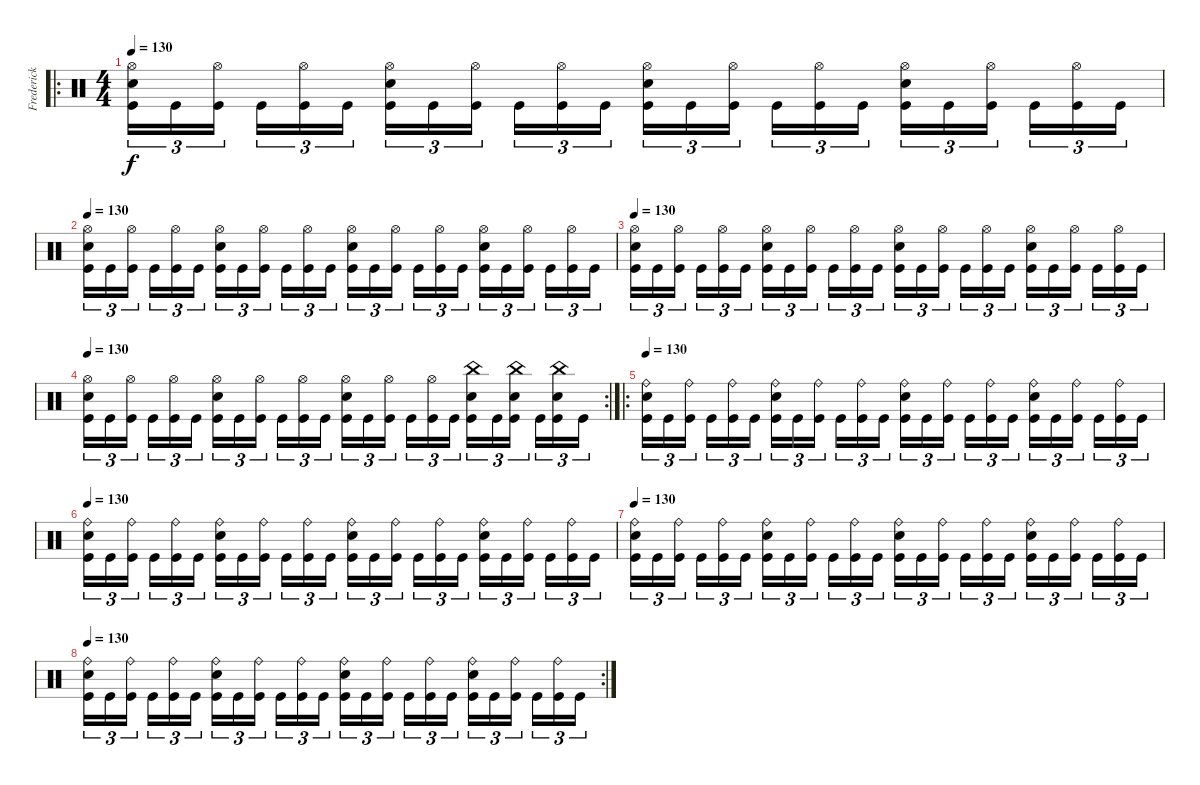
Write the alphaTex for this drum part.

\track ("Frederick" "Frederick") {instrument percussion}
\staff {score}
\articulation defaults
\ro
\ts (4 4)
\tempo 130
\clef neutral
\ks c
("Hi-Hat (open)" "Electric Snare (hit)" "Kick (hit)").16{tu (3 2) dy f} "Kick (hit)".16{tu (3 2)} ("Hi-Hat (open)" "Kick (hit)").16{tu (3 2)} "Kick (hit)".16{tu (3 2)} ("Hi-Hat (open)" "Kick (hit)").16{tu (3 2)} "Kick (hit)".16{tu (3 2)} ("Hi-Hat (open)" "Electric Snare (hit)" "Kick (hit)").16{tu (3 2)} "Kick (hit)".16{tu (3 2)} ("Hi-Hat (open)" "Kick (hit)").16{tu (3 2)} "Kick (hit)".16{tu (3 2)} ("Hi-Hat (open)" "Kick (hit)").16{tu (3 2)} "Kick (hit)".16{tu (3 2)} ("Hi-Hat (open)" "Electric Snare (hit)" "Kick (hit)").16{tu (3 2)} "Kick (hit)".16{tu (3 2)} ("Hi-Hat (open)" "Kick (hit)").16{tu (3 2)} "Kick (hit)".16{tu (3 2)} ("Hi-Hat (open)" "Kick (hit)").16{tu (3 2)} "Kick (hit)".16{tu (3 2)} ("Hi-Hat (open)" "Electric Snare (hit)" "Kick (hit)").16{tu (3 2)} "Kick (hit)".16{tu (3 2)} ("Hi-Hat (open)" "Kick (hit)").16{tu (3 2)} "Kick (hit)".16{tu (3 2)} ("Hi-Hat (open)" "Kick (hit)").16{tu (3 2)} "Kick (hit)".16{tu (3 2)} |
\tempo 130
("Hi-Hat (open)" "Electric Snare (hit)" "Kick (hit)").16{tu (3 2)} "Kick (hit)".16{tu (3 2)} ("Hi-Hat (open)" "Kick (hit)").16{tu (3 2)} "Kick (hit)".16{tu (3 2)} ("Hi-Hat (open)" "Kick (hit)").16{tu (3 2)} "Kick (hit)".16{tu (3 2)} ("Hi-Hat (open)" "Electric Snare (hit)" "Kick (hit)").16{tu (3 2)} "Kick (hit)".16{tu (3 2)} ("Hi-Hat (open)" "Kick (hit)").16{tu (3 2)} "Kick (hit)".16{tu (3 2)} ("Hi-Hat (open)" "Kick (hit)").16{tu (3 2)} "Kick (hit)".16{tu (3 2)} ("Hi-Hat (open)" "Electric Snare (hit)" "Kick (hit)").16{tu (3 2)} "Kick (hit)".16{tu (3 2)} ("Hi-Hat (open)" "Kick (hit)").16{tu (3 2)} "Kick (hit)".16{tu (3 2)} ("Hi-Hat (open)" "Kick (hit)").16{tu (3 2)} "Kick (hit)".16{tu (3 2)} ("Hi-Hat (open)" "Electric Snare (hit)" "Kick (hit)").16{tu (3 2)} "Kick (hit)".16{tu (3 2)} ("Hi-Hat (open)" "Kick (hit)").16{tu (3 2)} "Kick (hit)".16{tu (3 2)} ("Hi-Hat (open)" "Kick (hit)").16{tu (3 2)} "Kick (hit)".16{tu (3 2)} |
\tempo 130
("Hi-Hat (open)" "Electric Snare (hit)" "Kick (hit)").16{tu (3 2)} "Kick (hit)".16{tu (3 2)} ("Hi-Hat (open)" "Kick (hit)").16{tu (3 2)} "Kick (hit)".16{tu (3 2)} ("Hi-Hat (open)" "Kick (hit)").16{tu (3 2)} "Kick (hit)".16{tu (3 2)} ("Hi-Hat (open)" "Electric Snare (hit)" "Kick (hit)").16{tu (3 2)} "Kick (hit)".16{tu (3 2)} ("Hi-Hat (open)" "Kick (hit)").16{tu (3 2)} "Kick (hit)".16{tu (3 2)} ("Hi-Hat (open)" "Kick (hit)").16{tu (3 2)} "Kick (hit)".16{tu (3 2)} ("Hi-Hat (open)" "Electric Snare (hit)" "Kick (hit)").16{tu (3 2)} "Kick (hit)".16{tu (3 2)} ("Hi-Hat (open)" "Kick (hit)").16{tu (3 2)} "Kick (hit)".16{tu (3 2)} ("Hi-Hat (open)" "Kick (hit)").16{tu (3 2)} "Kick (hit)".16{tu (3 2)} ("Hi-Hat (open)" "Electric Snare (hit)" "Kick (hit)").16{tu (3 2)} "Kick (hit)".16{tu (3 2)} ("Hi-Hat (open)" "Kick (hit)").16{tu (3 2)} "Kick (hit)".16{tu (3 2)} ("Hi-Hat (open)" "Kick (hit)").16{tu (3 2)} "Kick (hit)".16{tu (3 2)} |
\rc 2
\tempo 130
("Hi-Hat (open)" "Electric Snare (hit)" "Kick (hit)").16{tu (3 2)} "Kick (hit)".16{tu (3 2)} ("Hi-Hat (open)" "Kick (hit)").16{tu (3 2)} "Kick (hit)".16{tu (3 2)} ("Hi-Hat (open)" "Kick (hit)").16{tu (3 2)} "Kick (hit)".16{tu (3 2)} ("Hi-Hat (open)" "Electric Snare (hit)" "Kick (hit)").16{tu (3 2)} "Kick (hit)".16{tu (3 2)} ("Hi-Hat (open)" "Kick (hit)").16{tu (3 2)} "Kick (hit)".16{tu (3 2)} ("Hi-Hat (open)" "Kick (hit)").16{tu (3 2)} "Kick (hit)".16{tu (3 2)} ("Hi-Hat (open)" "Electric Snare (hit)" "Kick (hit)").16{tu (3 2)} "Kick (hit)".16{tu (3 2)} ("Hi-Hat (open)" "Kick (hit)").16{tu (3 2)} "Kick (hit)".16{tu (3 2)} ("Hi-Hat (open)" "Kick (hit)").16{tu (3 2)} "Kick (hit)".16{tu (3 2)} ("China (hit)" "Electric Snare (hit)" "Kick (hit)").16{tu (3 2)} "Kick (hit)".16{tu (3 2)} ("China (hit)" "Electric Snare (hit)" "Kick (hit)").16{tu (3 2)} "Kick (hit)".16{tu (3 2)} ("China (hit)" "Electric Snare (hit)" "Kick (hit)").16{tu (3 2)} "Kick (hit)".16{tu (3 2)} |
\ro
\tempo 130
("Ride (bell)" "Electric Snare (hit)" "Kick (hit)").16{tu (3 2)} "Kick (hit)".16{tu (3 2)} ("Ride (bell)" "Kick (hit)").16{tu (3 2)} "Kick (hit)".16{tu (3 2)} ("Ride (bell)" "Kick (hit)").16{tu (3 2)} "Kick (hit)".16{tu (3 2)} ("Ride (bell)" "Electric Snare (hit)" "Kick (hit)").16{tu (3 2)} "Kick (hit)".16{tu (3 2)} ("Ride (bell)" "Kick (hit)").16{tu (3 2)} "Kick (hit)".16{tu (3 2)} ("Ride (bell)" "Kick (hit)").16{tu (3 2)} "Kick (hit)".16{tu (3 2)} ("Ride (bell)" "Electric Snare (hit)" "Kick (hit)").16{tu (3 2)} "Kick (hit)".16{tu (3 2)} ("Ride (bell)" "Kick (hit)").16{tu (3 2)} "Kick (hit)".16{tu (3 2)} ("Ride (bell)" "Kick (hit)").16{tu (3 2)} "Kick (hit)".16{tu (3 2)} ("Ride (bell)" "Electric Snare (hit)" "Kick (hit)").16{tu (3 2)} "Kick (hit)".16{tu (3 2)} ("Ride (bell)" "Kick (hit)").16{tu (3 2)} "Kick (hit)".16{tu (3 2)} ("Ride (bell)" "Kick (hit)").16{tu (3 2)} "Kick (hit)".16{tu (3 2)} |
\tempo 130
("Ride (bell)" "Electric Snare (hit)" "Kick (hit)").16{tu (3 2)} "Kick (hit)".16{tu (3 2)} ("Ride (bell)" "Kick (hit)").16{tu (3 2)} "Kick (hit)".16{tu (3 2)} ("Ride (bell)" "Kick (hit)").16{tu (3 2)} "Kick (hit)".16{tu (3 2)} ("Ride (bell)" "Electric Snare (hit)" "Kick (hit)").16{tu (3 2)} "Kick (hit)".16{tu (3 2)} ("Ride (bell)" "Kick (hit)").16{tu (3 2)} "Kick (hit)".16{tu (3 2)} ("Ride (bell)" "Kick (hit)").16{tu (3 2)} "Kick (hit)".16{tu (3 2)} ("Ride (bell)" "Electric Snare (hit)" "Kick (hit)").16{tu (3 2)} "Kick (hit)".16{tu (3 2)} ("Ride (bell)" "Kick (hit)").16{tu (3 2)} "Kick (hit)".16{tu (3 2)} ("Ride (bell)" "Kick (hit)").16{tu (3 2)} "Kick (hit)".16{tu (3 2)} ("Ride (bell)" "Electric Snare (hit)" "Kick (hit)").16{tu (3 2)} "Kick (hit)".16{tu (3 2)} ("Ride (bell)" "Kick (hit)").16{tu (3 2)} "Kick (hit)".16{tu (3 2)} ("Ride (bell)" "Kick (hit)").16{tu (3 2)} "Kick (hit)".16{tu (3 2)} |
\tempo 130
("Ride (bell)" "Electric Snare (hit)" "Kick (hit)").16{tu (3 2)} "Kick (hit)".16{tu (3 2)} ("Ride (bell)" "Kick (hit)").16{tu (3 2)} "Kick (hit)".16{tu (3 2)} ("Ride (bell)" "Kick (hit)").16{tu (3 2)} "Kick (hit)".16{tu (3 2)} ("Ride (bell)" "Electric Snare (hit)" "Kick (hit)").16{tu (3 2)} "Kick (hit)".16{tu (3 2)} ("Ride (bell)" "Kick (hit)").16{tu (3 2)} "Kick (hit)".16{tu (3 2)} ("Ride (bell)" "Kick (hit)").16{tu (3 2)} "Kick (hit)".16{tu (3 2)} ("Ride (bell)" "Electric Snare (hit)" "Kick (hit)").16{tu (3 2)} "Kick (hit)".16{tu (3 2)} ("Ride (bell)" "Kick (hit)").16{tu (3 2)} "Kick (hit)".16{tu (3 2)} ("Ride (bell)" "Kick (hit)").16{tu (3 2)} "Kick (hit)".16{tu (3 2)} ("Ride (bell)" "Electric Snare (hit)" "Kick (hit)").16{tu (3 2)} "Kick (hit)".16{tu (3 2)} ("Ride (bell)" "Kick (hit)").16{tu (3 2)} "Kick (hit)".16{tu (3 2)} ("Ride (bell)" "Kick (hit)").16{tu (3 2)} "Kick (hit)".16{tu (3 2)} |
\rc 2
\tempo 130
("Ride (bell)" "Electric Snare (hit)" "Kick (hit)").16{tu (3 2)} "Kick (hit)".16{tu (3 2)} ("Ride (bell)" "Kick (hit)").16{tu (3 2)} "Kick (hit)".16{tu (3 2)} ("Ride (bell)" "Kick (hit)").16{tu (3 2)} "Kick (hit)".16{tu (3 2)} ("Ride (bell)" "Electric Snare (hit)" "Kick (hit)").16{tu (3 2)} "Kick (hit)".16{tu (3 2)} ("Ride (bell)" "Kick (hit)").16{tu (3 2)} "Kick (hit)".16{tu (3 2)} ("Ride (bell)" "Kick (hit)").16{tu (3 2)} "Kick (hit)".16{tu (3 2)} ("Ride (bell)" "Electric Snare (hit)" "Kick (hit)").16{tu (3 2)} "Kick (hit)".16{tu (3 2)} ("Ride (bell)" "Kick (hit)").16{tu (3 2)} "Kick (hit)".16{tu (3 2)} ("Ride (bell)" "Kick (hit)").16{tu (3 2)} "Kick (hit)".16{tu (3 2)} ("Ride (bell)" "Electric Snare (hit)" "Kick (hit)").16{tu (3 2)} "Kick (hit)".16{tu (3 2)} ("Ride (bell)" "Kick (hit)").16{tu (3 2)} "Kick (hit)".16{tu (3 2)} ("Ride (bell)" "Kick (hit)").16{tu (3 2)} "Kick (hit)".16{tu (3 2)}
